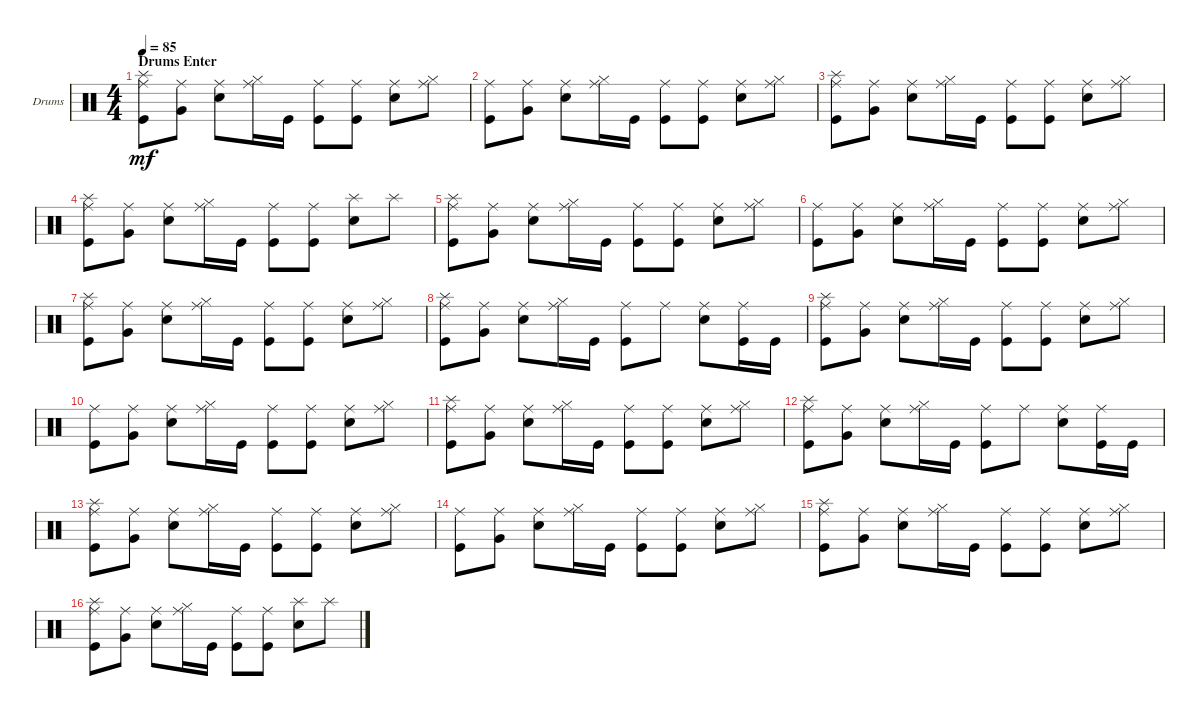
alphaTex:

\defaultSystemsLayout 4
\bracketExtendMode groupsimilarinstruments
\firstSystemTrackNameOrientation horizontal
\otherSystemsTrackNameOrientation horizontal
\track ("Drumkit" "Drums") {instrument percussion}
\staff {score}
\articulation defaults
\ts (4 4)
\section ("" "Drums Enter")
\tempo 85
\clef neutral
\scale
0.333333
\ks c
("Splash (hit)" "Kick (hit)" "Ride (middle)").8{dy mf} ("Very Low Tom (hit)" "Ride (middle)").8 ("Snare (hit) 2" "Ride (middle)").8 ("Hi-Hat (closed)" "Ride (middle)").16 "Kick (hit)".16 ("Kick (hit)" "Ride (middle)").8 ("Kick (hit)" "Ride (middle)").8 ("Snare (hit) 2" "Ride (middle)").8 ("Hi-Hat (closed)" "Ride (middle)").8 |
\scale
0.333333 ("Kick (hit)" "Ride (middle)").8 ("Very Low Tom (hit)" "Ride (middle)").8 ("Snare (hit) 2" "Ride (middle)").8 ("Hi-Hat (closed)" "Ride (middle)").16 "Kick (hit)".16 ("Kick (hit)" "Ride (middle)").8 ("Kick (hit)" "Ride (middle)").8 ("Snare (hit) 2" "Ride (middle)").8 ("Hi-Hat (closed)" "Ride (middle)").8 |
\scale
0.333333 ("Splash (hit)" "Kick (hit)" "Ride (middle)").8 ("Very Low Tom (hit)" "Ride (middle)").8 ("Snare (hit) 2" "Ride (middle)").8 ("Hi-Hat (closed)" "Ride (middle)").16 "Kick (hit)".16 ("Kick (hit)" "Ride (middle)").8 ("Kick (hit)" "Ride (middle)").8 ("Snare (hit) 2" "Ride (middle)").8 ("Hi-Hat (closed)" "Ride (middle)").8 |
\scale
0.333333 ("Splash (hit)" "Kick (hit)" "Ride (middle)").8 ("Very Low Tom (hit)" "Ride (middle)").8 ("Snare (hit) 2" "Ride (middle)").8 ("Hi-Hat (closed)" "Ride (middle)").16 "Kick (hit)".16 ("Kick (hit)" "Ride (middle)").8 ("Kick (hit)" "Ride (middle)").8 ("Snare (hit) 2" "Splash (hit)").8 "Splash (hit)".8 |
\scale
0.333333 ("Splash (hit)" "Kick (hit)" "Ride (middle)").8 ("Very Low Tom (hit)" "Ride (middle)").8 ("Snare (hit) 2" "Ride (middle)").8 ("Hi-Hat (closed)" "Ride (middle)").16 "Kick (hit)".16 ("Kick (hit)" "Ride (middle)").8 ("Kick (hit)" "Ride (middle)").8 ("Snare (hit) 2" "Ride (middle)").8 ("Hi-Hat (closed)" "Ride (middle)").8 |
\scale
0.333333 ("Kick (hit)" "Ride (middle)").8 ("Very Low Tom (hit)" "Ride (middle)").8 ("Snare (hit) 2" "Ride (middle)").8 ("Hi-Hat (closed)" "Ride (middle)").16 "Kick (hit)".16 ("Kick (hit)" "Ride (middle)").8 ("Kick (hit)" "Ride (middle)").8 ("Snare (hit) 2" "Ride (middle)").8 ("Hi-Hat (closed)" "Ride (middle)").8 |
\scale
0.333333 ("Splash (hit)" "Kick (hit)" "Ride (middle)").8 ("Very Low Tom (hit)" "Ride (middle)").8 ("Snare (hit) 2" "Ride (middle)").8 ("Hi-Hat (closed)" "Ride (middle)").16 "Kick (hit)".16 ("Kick (hit)" "Ride (middle)").8 ("Kick (hit)" "Ride (middle)").8 ("Snare (hit) 2" "Ride (middle)").8 ("Hi-Hat (closed)" "Ride (middle)").8 |
\scale
0.333333 ("Splash (hit)" "Kick (hit)" "Ride (middle)").8 ("Very Low Tom (hit)" "Ride (middle)").8 ("Snare (hit) 2" "Ride (middle)").8 ("Hi-Hat (closed)" "Ride (middle)").16 "Kick (hit)".16 ("Kick (hit)" "Ride (middle)").8 "Ride (middle)".8 ("Snare (hit) 2" "Ride (middle)").8 ("Kick (hit)" "Ride (middle)").16 "Kick (hit)".16 |
\scale
0.333333 ("Splash (hit)" "Kick (hit)" "Ride (middle)").8 ("Very Low Tom (hit)" "Ride (middle)").8 ("Snare (hit) 2" "Ride (middle)").8 ("Hi-Hat (closed)" "Ride (middle)").16 "Kick (hit)".16 ("Kick (hit)" "Ride (middle)").8 ("Kick (hit)" "Ride (middle)").8 ("Snare (hit) 2" "Ride (middle)").8 ("Hi-Hat (closed)" "Ride (middle)").8 |
\scale
0.333333 ("Kick (hit)" "Ride (middle)").8 ("Very Low Tom (hit)" "Ride (middle)").8 ("Snare (hit) 2" "Ride (middle)").8 ("Hi-Hat (closed)" "Ride (middle)").16 "Kick (hit)".16 ("Kick (hit)" "Ride (middle)").8 ("Kick (hit)" "Ride (middle)").8 ("Snare (hit) 2" "Ride (middle)").8 ("Hi-Hat (closed)" "Ride (middle)").8 |
\scale
0.333333 ("Splash (hit)" "Kick (hit)" "Ride (middle)").8 ("Very Low Tom (hit)" "Ride (middle)").8 ("Snare (hit) 2" "Ride (middle)").8 ("Hi-Hat (closed)" "Ride (middle)").16 "Kick (hit)".16 ("Kick (hit)" "Ride (middle)").8 ("Kick (hit)" "Ride (middle)").8 ("Snare (hit) 2" "Ride (middle)").8 ("Hi-Hat (closed)" "Ride (middle)").8 |
\scale
0.333333 ("Splash (hit)" "Kick (hit)" "Ride (middle)").8 ("Very Low Tom (hit)" "Ride (middle)").8 ("Snare (hit) 2" "Ride (middle)").8 ("Hi-Hat (closed)" "Ride (middle)").16 "Kick (hit)".16 ("Kick (hit)" "Ride (middle)").8 "Ride (middle)".8 ("Snare (hit) 2" "Ride (middle)").8 ("Kick (hit)" "Ride (middle)").16 "Kick (hit)".16 |
\scale
0.333333 ("Splash (hit)" "Kick (hit)" "Ride (middle)").8 ("Very Low Tom (hit)" "Ride (middle)").8 ("Snare (hit) 2" "Ride (middle)").8 ("Hi-Hat (closed)" "Ride (middle)").16 "Kick (hit)".16 ("Kick (hit)" "Ride (middle)").8 ("Kick (hit)" "Ride (middle)").8 ("Snare (hit) 2" "Ride (middle)").8 ("Hi-Hat (closed)" "Ride (middle)").8 |
\scale
0.333333 ("Kick (hit)" "Ride (middle)").8 ("Very Low Tom (hit)" "Ride (middle)").8 ("Snare (hit) 2" "Ride (middle)").8 ("Hi-Hat (closed)" "Ride (middle)").16 "Kick (hit)".16 ("Kick (hit)" "Ride (middle)").8 ("Kick (hit)" "Ride (middle)").8 ("Snare (hit) 2" "Ride (middle)").8 ("Hi-Hat (closed)" "Ride (middle)").8 |
\scale
0.333333 ("Splash (hit)" "Kick (hit)" "Ride (middle)").8 ("Very Low Tom (hit)" "Ride (middle)").8 ("Snare (hit) 2" "Ride (middle)").8 ("Hi-Hat (closed)" "Ride (middle)").16 "Kick (hit)".16 ("Kick (hit)" "Ride (middle)").8 ("Kick (hit)" "Ride (middle)").8 ("Snare (hit) 2" "Ride (middle)").8 ("Hi-Hat (closed)" "Ride (middle)").8 |
\scale
0.333333 ("Splash (hit)" "Kick (hit)" "Ride (middle)").8 ("Very Low Tom (hit)" "Ride (middle)").8 ("Snare (hit) 2" "Ride (middle)").8 ("Hi-Hat (closed)" "Ride (middle)").16 "Kick (hit)".16 ("Kick (hit)" "Ride (middle)").8 ("Kick (hit)" "Ride (middle)").8 ("Snare (hit) 2" "Splash (hit)").8 "Splash (hit)".8
